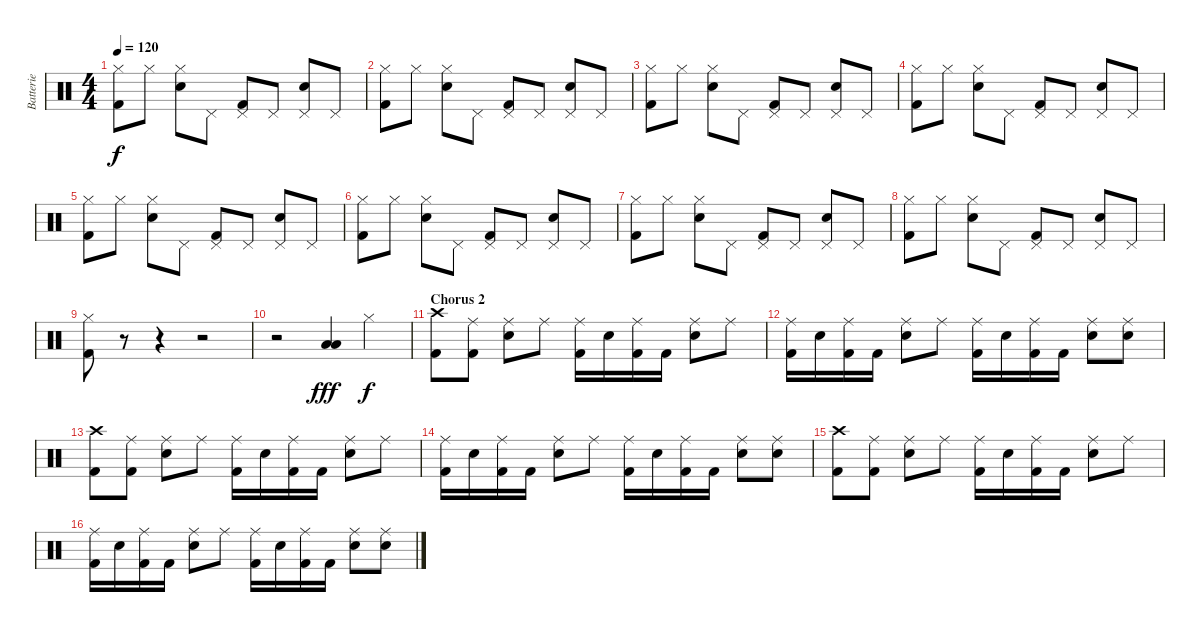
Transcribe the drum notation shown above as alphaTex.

\track ("Batterie" "Batterie") {instrument percussion}
\staff {score}
\articulation defaults
\ts (4 4)
\tempo 120
\clef neutral
\ks c
("Hi-Hat (closed)" "Kick (hit) 2").8{dy f} "Hi-Hat (closed)".8 ("Hi-Hat (closed)" "Electric Snare (hit)").8 "Pedal Hi-Hat (hit)".8 ("Pedal Hi-Hat (hit)" "Kick (hit) 2").8 "Pedal Hi-Hat (hit)".8 ("Pedal Hi-Hat (hit)" "Electric Snare (hit)").8 "Pedal Hi-Hat (hit)".8 |
("Hi-Hat (closed)" "Kick (hit) 2").8 "Hi-Hat (closed)".8 ("Hi-Hat (closed)" "Electric Snare (hit)").8 "Pedal Hi-Hat (hit)".8 ("Pedal Hi-Hat (hit)" "Kick (hit) 2").8 "Pedal Hi-Hat (hit)".8 ("Pedal Hi-Hat (hit)" "Electric Snare (hit)").8 "Pedal Hi-Hat (hit)".8 |
("Hi-Hat (closed)" "Kick (hit) 2").8 "Hi-Hat (closed)".8 ("Hi-Hat (closed)" "Electric Snare (hit)").8 "Pedal Hi-Hat (hit)".8 ("Pedal Hi-Hat (hit)" "Kick (hit) 2").8 "Pedal Hi-Hat (hit)".8 ("Pedal Hi-Hat (hit)" "Electric Snare (hit)").8 "Pedal Hi-Hat (hit)".8 |
("Hi-Hat (closed)" "Kick (hit) 2").8 "Hi-Hat (closed)".8 ("Hi-Hat (closed)" "Electric Snare (hit)").8 "Pedal Hi-Hat (hit)".8 ("Pedal Hi-Hat (hit)" "Kick (hit) 2").8 "Pedal Hi-Hat (hit)".8 ("Pedal Hi-Hat (hit)" "Electric Snare (hit)").8 "Pedal Hi-Hat (hit)".8 |
("Hi-Hat (closed)" "Kick (hit) 2").8 "Hi-Hat (closed)".8 ("Hi-Hat (closed)" "Electric Snare (hit)").8 "Pedal Hi-Hat (hit)".8 ("Pedal Hi-Hat (hit)" "Kick (hit) 2").8 "Pedal Hi-Hat (hit)".8 ("Pedal Hi-Hat (hit)" "Electric Snare (hit)").8 "Pedal Hi-Hat (hit)".8 |
("Hi-Hat (closed)" "Kick (hit) 2").8 "Hi-Hat (closed)".8 ("Hi-Hat (closed)" "Electric Snare (hit)").8 "Pedal Hi-Hat (hit)".8 ("Pedal Hi-Hat (hit)" "Kick (hit) 2").8 "Pedal Hi-Hat (hit)".8 ("Pedal Hi-Hat (hit)" "Electric Snare (hit)").8 "Pedal Hi-Hat (hit)".8 |
("Hi-Hat (closed)" "Kick (hit) 2").8 "Hi-Hat (closed)".8 ("Hi-Hat (closed)" "Electric Snare (hit)").8 "Pedal Hi-Hat (hit)".8 ("Pedal Hi-Hat (hit)" "Kick (hit) 2").8 "Pedal Hi-Hat (hit)".8 ("Pedal Hi-Hat (hit)" "Electric Snare (hit)").8 "Pedal Hi-Hat (hit)".8 |
("Hi-Hat (closed)" "Kick (hit) 2").8 "Hi-Hat (closed)".8 ("Hi-Hat (closed)" "Electric Snare (hit)").8 "Pedal Hi-Hat (hit)".8 ("Pedal Hi-Hat (hit)" "Kick (hit) 2").8 "Pedal Hi-Hat (hit)".8 ("Pedal Hi-Hat (hit)" "Electric Snare (hit)").8 "Pedal Hi-Hat (hit)".8 |
("Hi-Hat (closed)" "Kick (hit) 2").8 r.8 r.4 r.2 |
r.2 ("Low Tom (hit)" "Low Tom (hit)").4{dy fff} "Hi-Hat (closed)".4{dy f} |
\section ("" "Chorus 2")
("Crash high (hit)" "Kick (hit) 2").8 ("Ride (middle)" "Kick (hit) 2").8 ("Ride (middle)" "Electric Snare (hit)").8 "Ride (middle)".8 ("Ride (middle)" "Kick (hit) 2").16 "Electric Snare (hit)".16 ("Ride (middle)" "Kick (hit) 2").16 "Kick (hit) 2".16 ("Ride (middle)" "Electric Snare (hit)").8 "Ride (middle)".8 |
("Ride (middle)" "Kick (hit) 2").16 "Electric Snare (hit)".16 ("Ride (middle)" "Kick (hit) 2").16 "Kick (hit) 2".16 ("Ride (middle)" "Electric Snare (hit)").8 "Ride (middle)".8 ("Ride (middle)" "Kick (hit) 2").16 "Electric Snare (hit)".16 ("Ride (middle)" "Kick (hit) 2").16 "Kick (hit) 2".16 ("Ride (middle)" "Electric Snare (hit)").8 ("Ride (middle)" "Electric Snare (hit)").8 |
("Crash high (hit)" "Kick (hit) 2").8 ("Ride (middle)" "Kick (hit) 2").8 ("Ride (middle)" "Electric Snare (hit)").8 "Ride (middle)".8 ("Ride (middle)" "Kick (hit) 2").16 "Electric Snare (hit)".16 ("Ride (middle)" "Kick (hit) 2").16 "Kick (hit) 2".16 ("Ride (middle)" "Electric Snare (hit)").8 "Ride (middle)".8 |
("Ride (middle)" "Kick (hit) 2").16 "Electric Snare (hit)".16 ("Ride (middle)" "Kick (hit) 2").16 "Kick (hit) 2".16 ("Ride (middle)" "Electric Snare (hit)").8 "Ride (middle)".8 ("Ride (middle)" "Kick (hit) 2").16 "Electric Snare (hit)".16 ("Ride (middle)" "Kick (hit) 2").16 "Kick (hit) 2".16 ("Ride (middle)" "Electric Snare (hit)").8 ("Ride (middle)" "Electric Snare (hit)").8 |
("Crash high (hit)" "Kick (hit) 2").8 ("Ride (middle)" "Kick (hit) 2").8 ("Ride (middle)" "Electric Snare (hit)").8 "Ride (middle)".8 ("Ride (middle)" "Kick (hit) 2").16 "Electric Snare (hit)".16 ("Ride (middle)" "Kick (hit) 2").16 "Kick (hit) 2".16 ("Ride (middle)" "Electric Snare (hit)").8 "Ride (middle)".8 |
("Ride (middle)" "Kick (hit) 2").16 "Electric Snare (hit)".16 ("Ride (middle)" "Kick (hit) 2").16 "Kick (hit) 2".16 ("Ride (middle)" "Electric Snare (hit)").8 "Ride (middle)".8 ("Ride (middle)" "Kick (hit) 2").16 "Electric Snare (hit)".16 ("Ride (middle)" "Kick (hit) 2").16 "Kick (hit) 2".16 ("Ride (middle)" "Electric Snare (hit)").8 ("Ride (middle)" "Electric Snare (hit)").8
